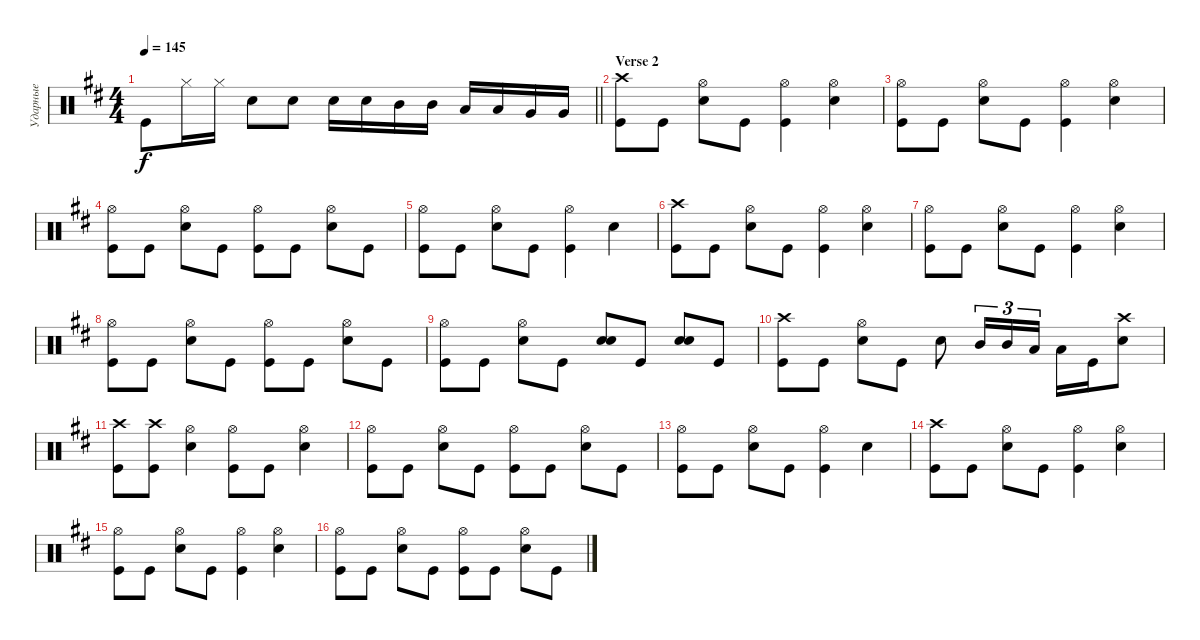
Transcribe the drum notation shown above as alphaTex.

\track ("Ударные" "Ударные") {instrument percussion}
\staff {score}
\articulation defaults
\ts (4 4)
\tempo 145
\clef neutral
\barLineRight lightlight
\ks bminor "Kick (hit)".8{dy f} "Hi-Hat (closed)".16 "Hi-Hat (closed)".16 "Snare (hit) 2".8 "Snare (hit) 2".8 "Snare (hit) 2".16 "Snare (hit) 2".16 "Mid Tom (hit)".16 "Mid Tom (hit)".16 "Low Tom (hit)".16 "Low Tom (hit)".16 "Very Low Tom (hit)".16 "Very Low Tom (hit)".16
|
\section ("" "Verse 2")
("Kick (hit)" "Crash high (hit)").8 "Kick (hit)".8 ("Snare (hit) 2" "Hi-Hat (open)").8 "Kick (hit)".8 ("Kick (hit)" "Hi-Hat (open)").4 ("Snare (hit) 2" "Hi-Hat (open)").4 |
("Kick (hit)" "Hi-Hat (open)").8 "Kick (hit)".8 ("Snare (hit) 2" "Hi-Hat (open)").8 "Kick (hit)".8 ("Kick (hit)" "Hi-Hat (open)").4 ("Snare (hit) 2" "Hi-Hat (open)").4 |
("Kick (hit)" "Hi-Hat (open)").8 "Kick (hit)".8 ("Snare (hit) 2" "Hi-Hat (open)").8 "Kick (hit)".8 ("Kick (hit)" "Hi-Hat (open)").8 "Kick (hit)".8 ("Snare (hit) 2" "Hi-Hat (open)").8 "Kick (hit)".8 |
("Kick (hit)" "Hi-Hat (open)").8 "Kick (hit)".8 ("Snare (hit) 2" "Hi-Hat (open)").8 "Kick (hit)".8 ("Kick (hit)" "Hi-Hat (open)").4 "Snare (hit) 2".4 |
("Kick (hit)" "Crash high (hit)").8 "Kick (hit)".8 ("Snare (hit) 2" "Hi-Hat (open)").8 "Kick (hit)".8 ("Kick (hit)" "Hi-Hat (open)").4 ("Snare (hit) 2" "Hi-Hat (open)").4 |
("Kick (hit)" "Hi-Hat (open)").8 "Kick (hit)".8 ("Snare (hit) 2" "Hi-Hat (open)").8 "Kick (hit)".8 ("Kick (hit)" "Hi-Hat (open)").4 ("Snare (hit) 2" "Hi-Hat (open)").4 |
("Kick (hit)" "Hi-Hat (open)").8 "Kick (hit)".8 ("Snare (hit) 2" "Hi-Hat (open)").8 "Kick (hit)".8 ("Kick (hit)" "Hi-Hat (open)").8 "Kick (hit)".8 ("Snare (hit) 2" "Hi-Hat (open)").8 "Kick (hit)".8 |
("Kick (hit)" "Hi-Hat (open)").8 "Kick (hit)".8 ("Snare (hit) 2" "Hi-Hat (open)").8 "Kick (hit)".8 ("Snare (hit) 2" "Snare (hit) 2").8{bd 240} "Kick (hit)".8 ("Snare (hit) 2" "Snare (hit) 2").8{bd 240} "Kick (hit)".8 |
("Kick (hit)" "Crash high (hit)").8 "Kick (hit)".8 ("Snare (hit) 2" "Hi-Hat (open)").8 "Kick (hit)".8 "Snare (hit) 2".8 "Mid Tom (hit)".16{tu (3 2)} "Mid Tom (hit)".16{tu (3 2)} "Low Tom (hit)".16{tu (3 2)} "Low Tom (hit)".16 "Kick (hit)".16 ("Snare (hit) 2" "Crash high (hit)").8 |
("Kick (hit)" "Crash high (hit)").8 ("Kick (hit)" "Crash high (hit)").8 ("Snare (hit) 2" "Hi-Hat (open)").4 ("Kick (hit)" "Hi-Hat (open)").8 "Kick (hit)".8 ("Snare (hit) 2" "Hi-Hat (open)").4 |
("Kick (hit)" "Hi-Hat (open)").8 "Kick (hit)".8 ("Snare (hit) 2" "Hi-Hat (open)").8 "Kick (hit)".8 ("Kick (hit)" "Hi-Hat (open)").8 "Kick (hit)".8 ("Snare (hit) 2" "Hi-Hat (open)").8 "Kick (hit)".8 |
("Kick (hit)" "Hi-Hat (open)").8 "Kick (hit)".8 ("Snare (hit) 2" "Hi-Hat (open)").8 "Kick (hit)".8 ("Kick (hit)" "Hi-Hat (open)").4 "Snare (hit) 2".4 |
("Kick (hit)" "Crash high (hit)").8 "Kick (hit)".8 ("Snare (hit) 2" "Hi-Hat (open)").8 "Kick (hit)".8 ("Kick (hit)" "Hi-Hat (open)").4 ("Snare (hit) 2" "Hi-Hat (open)").4 |
("Kick (hit)" "Hi-Hat (open)").8 "Kick (hit)".8 ("Snare (hit) 2" "Hi-Hat (open)").8 "Kick (hit)".8 ("Kick (hit)" "Hi-Hat (open)").4 ("Snare (hit) 2" "Hi-Hat (open)").4 |
("Kick (hit)" "Hi-Hat (open)").8 "Kick (hit)".8 ("Snare (hit) 2" "Hi-Hat (open)").8 "Kick (hit)".8 ("Kick (hit)" "Hi-Hat (open)").8 "Kick (hit)".8 ("Snare (hit) 2" "Hi-Hat (open)").8 "Kick (hit)".8
